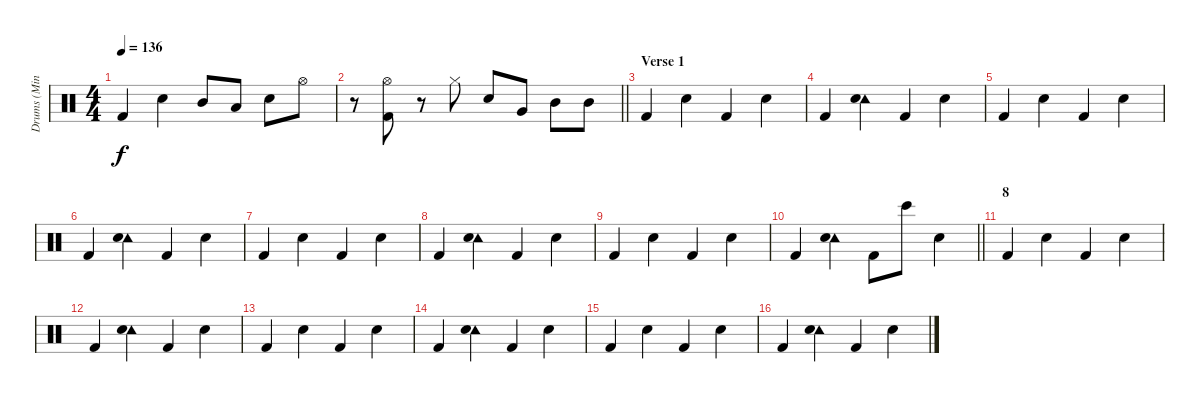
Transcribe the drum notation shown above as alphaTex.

\track ("Drums (Minato)" "Drums (Min") {instrument percussion}
\staff {score}
\articulation defaults
\ts (4 4)
\tempo 136
\clef neutral
\ks c "Kick (hit) 2".4{dy f} "Snare (hit) 2".4 "Mid Tom (hit)".8 "Low Tom (hit)".8 "Snare (hit) 2".8 "Hi-Hat (open)".8
|
\barLineRight lightlight
r.8 ("Hi-Hat (open)" "Kick (hit) 2").8 r.8 "Hi-Hat (closed)".8 "Snare (hit) 2".8 "Very Low Tom (hit)".8 "Mid Tom (hit)".8 "Mid Tom (hit)".8 |
\section ("" "Verse 1")
"Kick (hit) 2".4 "Snare (hit) 2".4 "Kick (hit) 2".4 "Snare (hit) 2".4 |
"Kick (hit) 2".4 ("Tambourine (hit)" "Snare (hit) 2").4 "Kick (hit) 2".4 "Snare (hit) 2".4 |
"Kick (hit) 2".4 "Snare (hit) 2".4 "Kick (hit) 2".4 "Snare (hit) 2".4 |
"Kick (hit) 2".4 ("Tambourine (hit)" "Snare (hit) 2").4 "Kick (hit) 2".4 "Snare (hit) 2".4 |
"Kick (hit) 2".4 "Snare (hit) 2".4 "Kick (hit) 2".4 "Snare (hit) 2".4 |
"Kick (hit) 2".4 ("Tambourine (hit)" "Snare (hit) 2").4 "Kick (hit) 2".4 "Snare (hit) 2".4 |
"Kick (hit) 2".4 "Snare (hit) 2".4 "Kick (hit) 2".4 "Snare (hit) 2".4 |
\barLineRight lightlight "Kick (hit) 2".4
("Tambourine (hit)" "Snare (hit) 2").4 "Kick (hit) 2".8 "Bongo High (hit)".8 "Snare (hit) 2".4 |
\section ("" "8")
"Kick (hit) 2".4 "Snare (hit) 2".4 "Kick (hit) 2".4 "Snare (hit) 2".4 |
"Kick (hit) 2".4 ("Tambourine (hit)" "Snare (hit) 2").4 "Kick (hit) 2".4 "Snare (hit) 2".4 |
"Kick (hit) 2".4 "Snare (hit) 2".4 "Kick (hit) 2".4 "Snare (hit) 2".4 |
"Kick (hit) 2".4 ("Tambourine (hit)" "Snare (hit) 2").4 "Kick (hit) 2".4 "Snare (hit) 2".4 |
"Kick (hit) 2".4 "Snare (hit) 2".4 "Kick (hit) 2".4 "Snare (hit) 2".4 |
"Kick (hit) 2".4 ("Tambourine (hit)" "Snare (hit) 2").4 "Kick (hit) 2".4 "Snare (hit) 2".4
